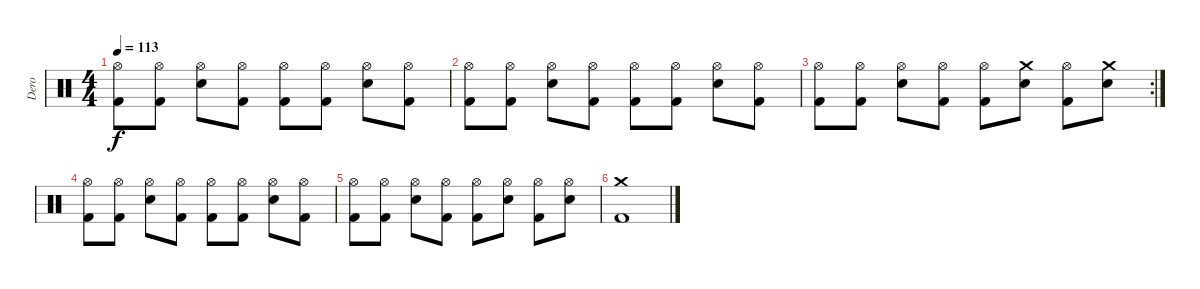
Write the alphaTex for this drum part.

\track ("Dero" "Dero") {instrument percussion}
\staff {score}
\articulation defaults
\ts (4 4)
\tempo 113
\clef neutral
\ks c
("Hi-Hat (open)" "Kick (hit) 2").8{dy f} ("Hi-Hat (open)" "Kick (hit) 2").8 ("Hi-Hat (open)" "Electric Snare (hit)").8 ("Hi-Hat (open)" "Kick (hit) 2").8 ("Hi-Hat (open)" "Kick (hit) 2").8 ("Hi-Hat (open)" "Kick (hit) 2").8 ("Hi-Hat (open)" "Electric Snare (hit)").8 ("Hi-Hat (open)" "Kick (hit) 2").8 |
("Hi-Hat (open)" "Kick (hit) 2").8 ("Hi-Hat (open)" "Kick (hit) 2").8 ("Hi-Hat (open)" "Electric Snare (hit)").8 ("Hi-Hat (open)" "Kick (hit) 2").8 ("Hi-Hat (open)" "Kick (hit) 2").8 ("Hi-Hat (open)" "Kick (hit) 2").8 ("Hi-Hat (open)" "Electric Snare (hit)").8 ("Hi-Hat (open)" "Kick (hit) 2").8 |
\rc 2
("Hi-Hat (open)" "Kick (hit) 2").8 ("Hi-Hat (open)" "Kick (hit) 2").8 ("Hi-Hat (open)" "Electric Snare (hit)").8 ("Hi-Hat (open)" "Kick (hit) 2").8 ("Hi-Hat (open)" "Kick (hit) 2").8 ("Crash medium (hit)" "Electric Snare (hit)").8 ("Hi-Hat (open)" "Kick (hit) 2").8 ("Crash medium (hit)" "Electric Snare (hit)").8 |
("Hi-Hat (open)" "Kick (hit) 2").8 ("Hi-Hat (open)" "Kick (hit) 2").8 ("Hi-Hat (open)" "Electric Snare (hit)").8 ("Hi-Hat (open)" "Kick (hit) 2").8 ("Hi-Hat (open)" "Kick (hit) 2").8 ("Hi-Hat (open)" "Kick (hit) 2").8 ("Hi-Hat (open)" "Electric Snare (hit)").8 ("Hi-Hat (open)" "Kick (hit) 2").8 |
("Hi-Hat (open)" "Kick (hit) 2").8 ("Hi-Hat (open)" "Kick (hit) 2").8 ("Hi-Hat (open)" "Electric Snare (hit)").8 ("Hi-Hat (open)" "Kick (hit) 2").8 ("Hi-Hat (open)" "Kick (hit) 2").8 ("Hi-Hat (open)" "Electric Snare (hit)").8 ("Hi-Hat (open)" "Kick (hit) 2").8 ("Hi-Hat (open)" "Electric Snare (hit)").8 |
("Crash medium (hit)" "Kick (hit) 2").1
